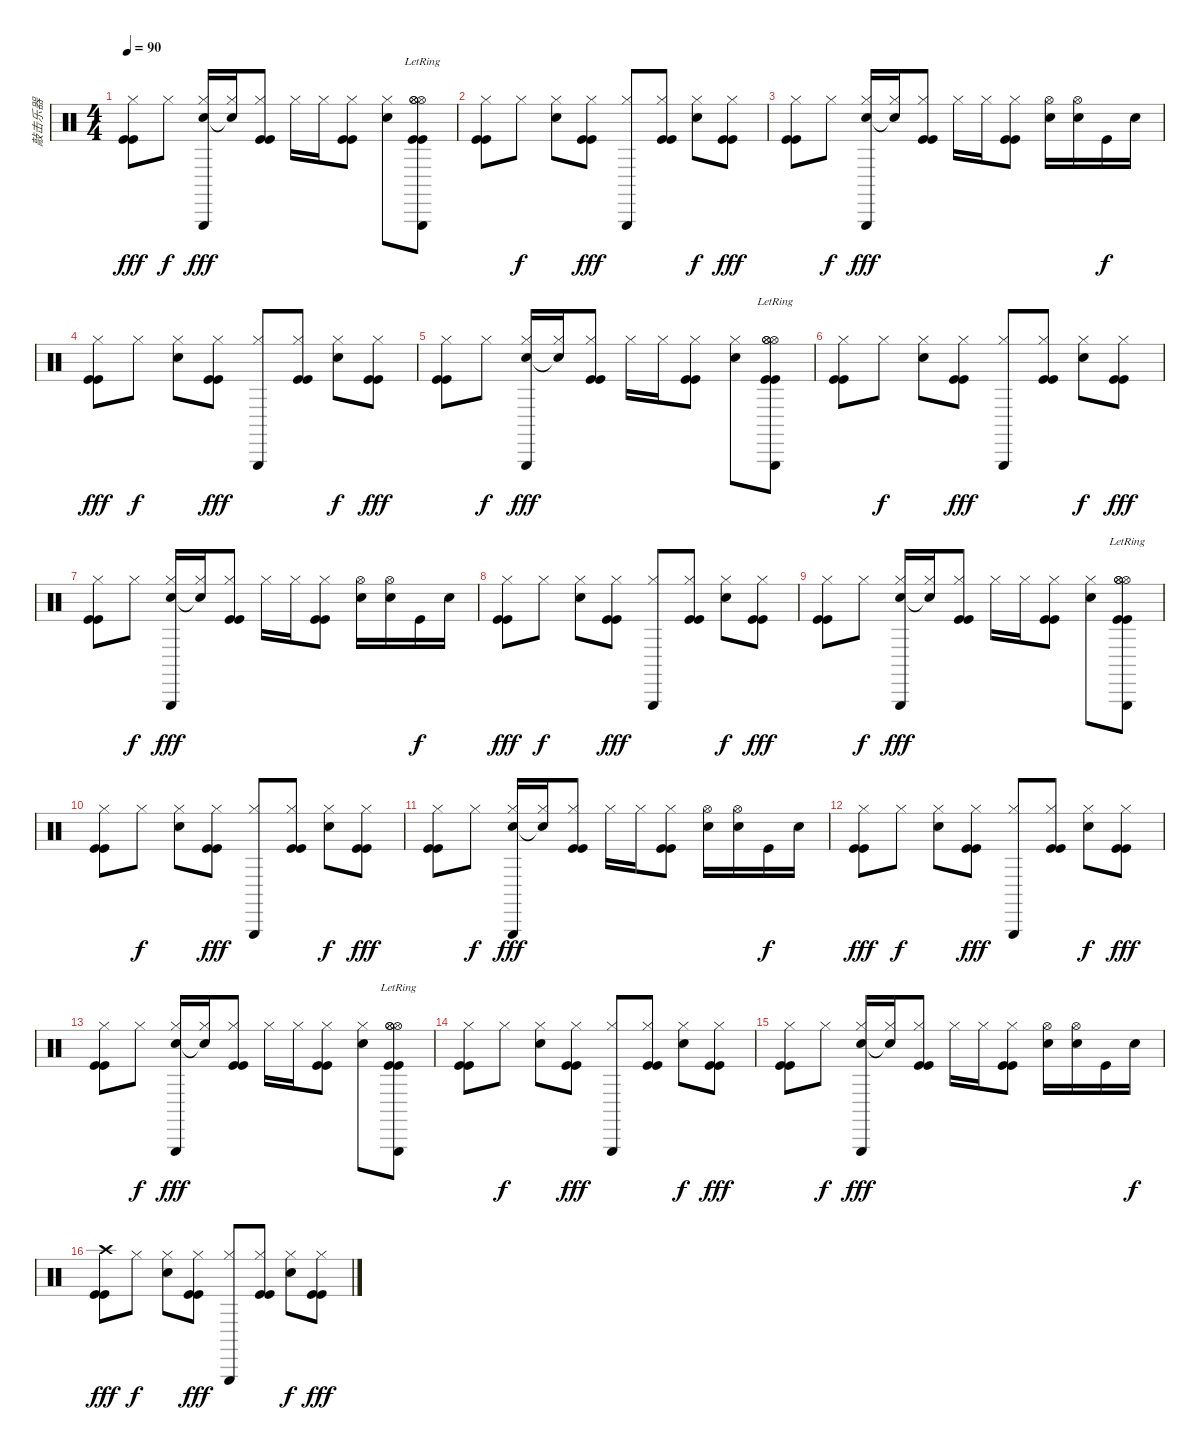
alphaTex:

\track ("敲击乐器" "敲击乐器") {instrument percussion}
\staff {score}
\articulation defaults
\ts (4 4)
\tempo 90
\clef neutral
\ks c
("Hi-Hat (closed)" "Kick (hit)" "Kick (hit)").8{dy fff} "Hi-Hat (closed)".8{dy f} ("Hi-Hat (closed)" "Electric Snare (hit)" "Triangle (hit)").16{dy fff} ("Hi-Hat (closed)" "Snare (hit)"{t}).16 ("Hi-Hat (closed)" "Kick (hit)" "Kick (hit)").8 "Hi-Hat (closed)".16 "Hi-Hat (closed)".16 ("Hi-Hat (closed)" "Kick (hit)" "Kick (hit)").8 ("Hi-Hat (closed)" "Electric Snare (hit)").8 ("Hi-Hat (open)" "Hi-Hat (open)" "Hi-Hat (open)" "Triangle (hit)"{lr} "Kick (hit)" "Kick (hit)").8 |
("Hi-Hat (closed)" "Kick (hit)" "Kick (hit)").8 "Hi-Hat (closed)".8{dy f} ("Hi-Hat (closed)" "Electric Snare (hit)").8 ("Hi-Hat (closed)" "Kick (hit)" "Kick (hit)").8{dy fff} ("Hi-Hat (closed)" "Triangle (hit)").8 ("Hi-Hat (closed)" "Kick (hit)" "Kick (hit)").8 ("Hi-Hat (closed)" "Electric Snare (hit)").8{dy f} ("Hi-Hat (closed)" "Kick (hit)" "Kick (hit)").8{dy fff} |
("Hi-Hat (closed)" "Kick (hit)" "Kick (hit)").8 "Hi-Hat (closed)".8{dy f} ("Hi-Hat (closed)" "Electric Snare (hit)" "Triangle (hit)").16{dy fff} ("Hi-Hat (closed)" "Snare (hit)"{t}).16 ("Hi-Hat (closed)" "Kick (hit)" "Kick (hit)").8 "Hi-Hat (closed)".16 "Hi-Hat (closed)".16 ("Hi-Hat (closed)" "Kick (hit)" "Kick (hit)").8 ("Hi-Hat (open)" "Electric Snare (hit)").16 ("Hi-Hat (open)" "Electric Snare (hit)").16 "Kick (hit)".16{dy f} "Electric Snare (hit)".16 |
("Hi-Hat (closed)" "Kick (hit)" "Kick (hit)").8{dy fff} "Hi-Hat (closed)".8{dy f} ("Hi-Hat (closed)" "Electric Snare (hit)").8 ("Hi-Hat (closed)" "Kick (hit)" "Kick (hit)").8{dy fff} ("Hi-Hat (closed)" "Triangle (hit)").8 ("Hi-Hat (closed)" "Kick (hit)" "Kick (hit)").8 ("Hi-Hat (closed)" "Electric Snare (hit)").8{dy f} ("Hi-Hat (closed)" "Kick (hit)" "Kick (hit)").8{dy fff} |
("Hi-Hat (closed)" "Kick (hit)" "Kick (hit)").8 "Hi-Hat (closed)".8{dy f} ("Hi-Hat (closed)" "Electric Snare (hit)" "Triangle (hit)").16{dy fff} ("Hi-Hat (closed)" "Snare (hit)"{t}).16 ("Hi-Hat (closed)" "Kick (hit)" "Kick (hit)").8 "Hi-Hat (closed)".16 "Hi-Hat (closed)".16 ("Hi-Hat (closed)" "Kick (hit)" "Kick (hit)").8 ("Hi-Hat (closed)" "Electric Snare (hit)").8 ("Hi-Hat (open)" "Hi-Hat (open)" "Hi-Hat (open)" "Triangle (hit)"{lr} "Kick (hit)" "Kick (hit)").8 |
("Hi-Hat (closed)" "Kick (hit)" "Kick (hit)").8 "Hi-Hat (closed)".8{dy f} ("Hi-Hat (closed)" "Electric Snare (hit)").8 ("Hi-Hat (closed)" "Kick (hit)" "Kick (hit)").8{dy fff} ("Hi-Hat (closed)" "Triangle (hit)").8 ("Hi-Hat (closed)" "Kick (hit)" "Kick (hit)").8 ("Hi-Hat (closed)" "Electric Snare (hit)").8{dy f} ("Hi-Hat (closed)" "Kick (hit)" "Kick (hit)").8{dy fff} |
("Hi-Hat (closed)" "Kick (hit)" "Kick (hit)").8 "Hi-Hat (closed)".8{dy f} ("Hi-Hat (closed)" "Electric Snare (hit)" "Triangle (hit)").16{dy fff} ("Hi-Hat (closed)" "Snare (hit)"{t}).16 ("Hi-Hat (closed)" "Kick (hit)" "Kick (hit)").8 "Hi-Hat (closed)".16 "Hi-Hat (closed)".16 ("Hi-Hat (closed)" "Kick (hit)" "Kick (hit)").8 ("Hi-Hat (open)" "Electric Snare (hit)").16 ("Hi-Hat (open)" "Electric Snare (hit)").16 "Kick (hit)".16{dy f} "Electric Snare (hit)".16 |
("Hi-Hat (closed)" "Kick (hit)" "Kick (hit)").8{dy fff} "Hi-Hat (closed)".8{dy f} ("Hi-Hat (closed)" "Electric Snare (hit)").8 ("Hi-Hat (closed)" "Kick (hit)" "Kick (hit)").8{dy fff} ("Hi-Hat (closed)" "Triangle (hit)").8 ("Hi-Hat (closed)" "Kick (hit)" "Kick (hit)").8 ("Hi-Hat (closed)" "Electric Snare (hit)").8{dy f} ("Hi-Hat (closed)" "Kick (hit)" "Kick (hit)").8{dy fff} |
("Hi-Hat (closed)" "Kick (hit)" "Kick (hit)").8 "Hi-Hat (closed)".8{dy f} ("Hi-Hat (closed)" "Electric Snare (hit)" "Triangle (hit)").16{dy fff} ("Hi-Hat (closed)" "Snare (hit)"{t}).16 ("Hi-Hat (closed)" "Kick (hit)" "Kick (hit)").8 "Hi-Hat (closed)".16 "Hi-Hat (closed)".16 ("Hi-Hat (closed)" "Kick (hit)" "Kick (hit)").8 ("Hi-Hat (closed)" "Electric Snare (hit)").8 ("Hi-Hat (open)" "Hi-Hat (open)" "Hi-Hat (open)" "Triangle (hit)"{lr} "Kick (hit)" "Kick (hit)").8 |
("Hi-Hat (closed)" "Kick (hit)" "Kick (hit)").8 "Hi-Hat (closed)".8{dy f} ("Hi-Hat (closed)" "Electric Snare (hit)").8 ("Hi-Hat (closed)" "Kick (hit)" "Kick (hit)").8{dy fff} ("Hi-Hat (closed)" "Triangle (hit)").8 ("Hi-Hat (closed)" "Kick (hit)" "Kick (hit)").8 ("Hi-Hat (closed)" "Electric Snare (hit)").8{dy f} ("Hi-Hat (closed)" "Kick (hit)" "Kick (hit)").8{dy fff} |
("Hi-Hat (closed)" "Kick (hit)" "Kick (hit)").8 "Hi-Hat (closed)".8{dy f} ("Hi-Hat (closed)" "Electric Snare (hit)" "Triangle (hit)").16{dy fff} ("Hi-Hat (closed)" "Snare (hit)"{t}).16 ("Hi-Hat (closed)" "Kick (hit)" "Kick (hit)").8 "Hi-Hat (closed)".16 "Hi-Hat (closed)".16 ("Hi-Hat (closed)" "Kick (hit)" "Kick (hit)").8 ("Hi-Hat (open)" "Electric Snare (hit)").16 ("Hi-Hat (open)" "Electric Snare (hit)").16 "Kick (hit)".16{dy f} "Electric Snare (hit)".16 |
("Hi-Hat (closed)" "Kick (hit)" "Kick (hit)").8{dy fff} "Hi-Hat (closed)".8{dy f} ("Hi-Hat (closed)" "Electric Snare (hit)").8 ("Hi-Hat (closed)" "Kick (hit)" "Kick (hit)").8{dy fff} ("Hi-Hat (closed)" "Triangle (hit)").8 ("Hi-Hat (closed)" "Kick (hit)" "Kick (hit)").8 ("Hi-Hat (closed)" "Electric Snare (hit)").8{dy f} ("Hi-Hat (closed)" "Kick (hit)" "Kick (hit)").8{dy fff} |
("Hi-Hat (closed)" "Kick (hit)" "Kick (hit)").8 "Hi-Hat (closed)".8{dy f} ("Hi-Hat (closed)" "Electric Snare (hit)" "Triangle (hit)").16{dy fff} ("Hi-Hat (closed)" "Snare (hit)"{t}).16 ("Hi-Hat (closed)" "Kick (hit)" "Kick (hit)").8 "Hi-Hat (closed)".16 "Hi-Hat (closed)".16 ("Hi-Hat (closed)" "Kick (hit)" "Kick (hit)").8 ("Hi-Hat (closed)" "Electric Snare (hit)").8 ("Hi-Hat (open)" "Hi-Hat (open)" "Hi-Hat (open)" "Triangle (hit)"{lr} "Kick (hit)" "Kick (hit)").8 |
("Hi-Hat (closed)" "Kick (hit)" "Kick (hit)").8 "Hi-Hat (closed)".8{dy f} ("Hi-Hat (closed)" "Electric Snare (hit)").8 ("Hi-Hat (closed)" "Kick (hit)" "Kick (hit)").8{dy fff} ("Hi-Hat (closed)" "Triangle (hit)").8 ("Hi-Hat (closed)" "Kick (hit)" "Kick (hit)").8 ("Hi-Hat (closed)" "Electric Snare (hit)").8{dy f} ("Hi-Hat (closed)" "Kick (hit)" "Kick (hit)").8{dy fff} |
("Hi-Hat (closed)" "Kick (hit)" "Kick (hit)").8 "Hi-Hat (closed)".8{dy f} ("Hi-Hat (closed)" "Electric Snare (hit)" "Triangle (hit)").16{dy fff} ("Hi-Hat (closed)" "Snare (hit)"{t}).16 ("Hi-Hat (closed)" "Kick (hit)" "Kick (hit)").8 "Hi-Hat (closed)".16 "Hi-Hat (closed)".16 ("Hi-Hat (closed)" "Kick (hit)" "Kick (hit)").8 ("Hi-Hat (open)" "Electric Snare (hit)").16 ("Hi-Hat (open)" "Electric Snare (hit)").16 "Kick (hit)".16 "Electric Snare (hit)".16{dy f} |
("Crash high (hit)" "Kick (hit)" "Kick (hit)").8{dy fff} "Hi-Hat (closed)".8{dy f} ("Hi-Hat (closed)" "Electric Snare (hit)").8 ("Hi-Hat (closed)" "Kick (hit)" "Kick (hit)").8{dy fff} ("Hi-Hat (closed)" "Triangle (hit)").8 ("Hi-Hat (closed)" "Kick (hit)" "Kick (hit)").8 ("Hi-Hat (closed)" "Electric Snare (hit)").8{dy f} ("Hi-Hat (closed)" "Kick (hit)" "Kick (hit)").8{dy fff}
